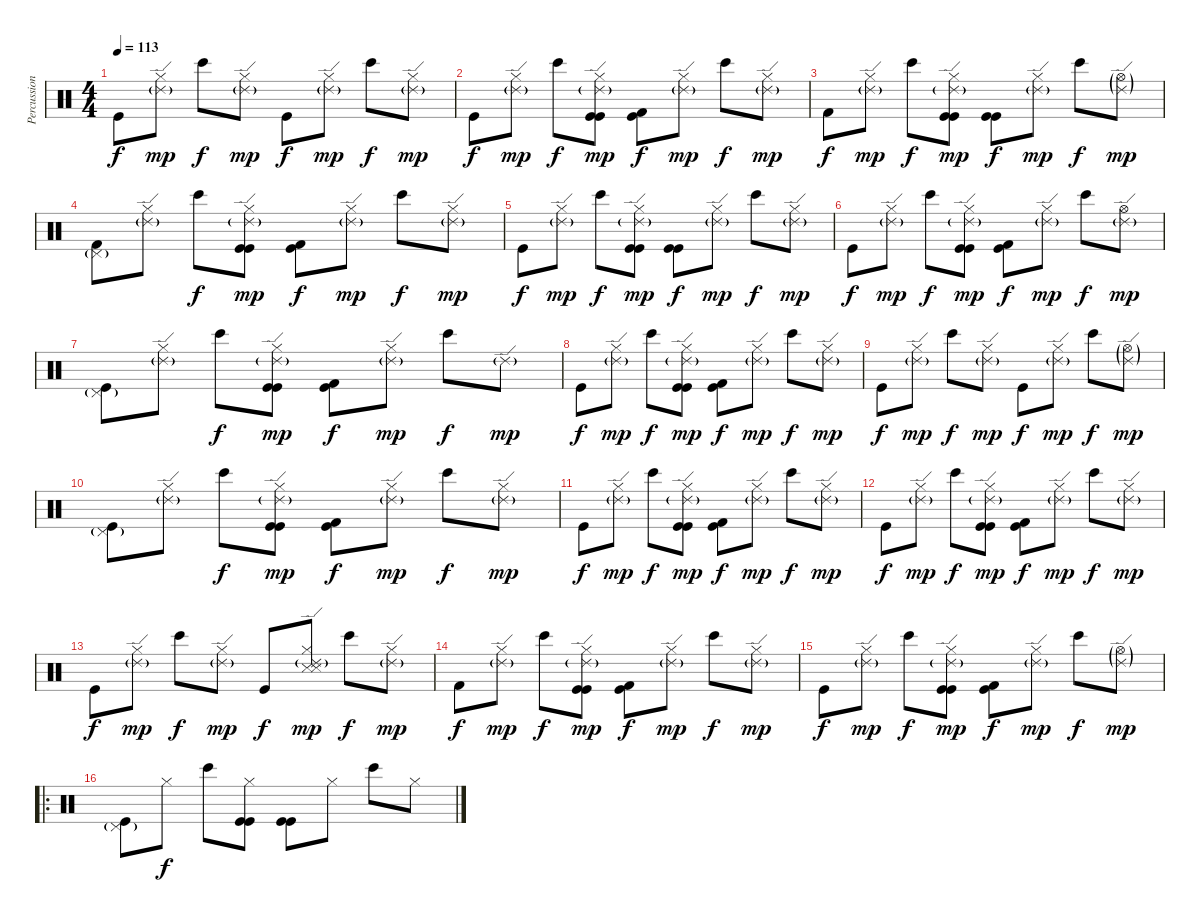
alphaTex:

\track ("Percussion" "Percussion") {instrument percussion}
\staff {score}
\articulation defaults
\ts (4 4)
\tempo 113
\clef neutral
\ks c "Kick (hit)".8{dy f}
("Ride (edge) 2"{g} "Hi-Hat (closed)").8{dy mp} "Bongo High (hit)".8{dy f} ("Ride (edge) 2"{g} "Hi-Hat (closed)").8{dy mp} "Kick (hit)".8{dy f} ("Ride (edge) 2"{g} "Hi-Hat (closed)").8{dy mp} "Bongo High (hit)".8{dy f} ("Ride (edge) 2"{g} "Hi-Hat (closed)").8{dy mp} |
"Kick (hit)".8{dy f} ("Ride (edge) 2"{g} "Hi-Hat (closed)").8{dy mp} "Bongo High (hit)".8{dy f} ("Ride (edge) 2"{g} "Hi-Hat (closed)" "Kick (hit)" "Kick (hit)").8{dy mp} ("Kick (hit)" "Kick (hit) 2").8{dy f} ("Ride (edge) 2"{g} "Hi-Hat (closed)").8{dy mp} "Bongo High (hit)".8{dy f} ("Ride (edge) 2"{g} "Hi-Hat (closed)").8{dy mp} |
"Kick (hit) 2".8{dy f} ("Ride (edge) 2"{g} "Hi-Hat (closed)").8{dy mp} "Bongo High (hit)".8{dy f} ("Ride (edge) 2"{g} "Hi-Hat (closed)" "Kick (hit)" "Kick (hit)").8{dy mp} ("Kick (hit)" "Kick (hit)").8{dy f} ("Ride (edge) 2"{g} "Hi-Hat (closed)").8{dy mp} "Bongo High (hit)".8{dy f} ("Ride (edge) 2"{g} "Hi-Hat (open)"{g}).8{dy mp} |
("Pedal Hi-Hat (hit)"{g} "Kick (hit) 2").8 ("Ride (edge) 2"{g} "Hi-Hat (closed)").8 "Bongo High (hit)".8{dy f} ("Ride (edge) 2"{g} "Hi-Hat (closed)" "Kick (hit)" "Kick (hit)").8{dy mp} ("Kick (hit) 2" "Kick (hit)").8{dy f} ("Ride (edge) 2"{g} "Hi-Hat (closed)").8{dy mp} "Bongo High (hit)".8{dy f} ("Ride (edge) 2"{g} "Hi-Hat (closed)").8{dy mp} |
"Kick (hit)".8{dy f} ("Ride (edge) 2"{g} "Hi-Hat (closed)").8{dy mp} "Bongo High (hit)".8{dy f} ("Ride (edge) 2"{g} "Hi-Hat (closed)" "Kick (hit)" "Kick (hit)").8{dy mp} ("Kick (hit)" "Kick (hit)").8{dy f} ("Ride (edge) 2"{g} "Hi-Hat (closed)").8{dy mp} "Bongo High (hit)".8{dy f} ("Ride (edge) 2"{g} "Hi-Hat (closed)").8{dy mp} |
"Kick (hit)".8{dy f} ("Ride (edge) 2"{g} "Hi-Hat (closed)").8{dy mp} "Bongo High (hit)".8{dy f} ("Ride (edge) 2"{g} "Hi-Hat (closed)" "Kick (hit)" "Kick (hit)").8{dy mp} ("Kick (hit)" "Kick (hit) 2").8{dy f} ("Ride (edge) 2"{g} "Hi-Hat (closed)").8{dy mp} "Bongo High (hit)".8{dy f} ("Ride (edge) 2"{g} "Hi-Hat (open)").8{dy mp} |
("Pedal Hi-Hat (hit)"{g} "Kick (hit)").8 ("Ride (edge) 2"{g} "Hi-Hat (closed)").8 "Bongo High (hit)".8{dy f} ("Ride (edge) 2"{g} "Hi-Hat (closed)" "Kick (hit)" "Kick (hit)").8{dy mp} ("Kick (hit)" "Kick (hit) 2").8{dy f} ("Ride (edge) 2"{g} "Hi-Hat (closed)").8{dy mp} "Bongo High (hit)".8{dy f} "Ride (edge) 2"{g}.8{dy mp} |
"Kick (hit)".8{dy f} ("Ride (edge) 2"{g} "Hi-Hat (closed)").8{dy mp} "Bongo High (hit)".8{dy f} ("Ride (edge) 2"{g} "Hi-Hat (closed)" "Kick (hit)" "Kick (hit)").8{dy mp} ("Kick (hit)" "Kick (hit) 2").8{dy f} ("Ride (edge) 2"{g} "Hi-Hat (closed)").8{dy mp} "Bongo High (hit)".8{dy f} ("Ride (edge) 2"{g} "Hi-Hat (closed)").8{dy mp} |
"Kick (hit)".8{dy f} ("Ride (edge) 2"{g} "Hi-Hat (closed)").8{dy mp} "Bongo High (hit)".8{dy f} ("Ride (edge) 2"{g} "Hi-Hat (closed)").8{dy mp} "Kick (hit)".8{dy f} ("Ride (edge) 2"{g} "Hi-Hat (closed)").8{dy mp} "Bongo High (hit)".8{dy f} ("Ride (edge) 2"{g} "Hi-Hat (open)"{g}).8{dy mp} |
("Pedal Hi-Hat (hit)"{g} "Kick (hit)").8 ("Ride (edge) 2"{g} "Hi-Hat (closed)").8 "Bongo High (hit)".8{dy f} ("Ride (edge) 2"{g} "Hi-Hat (closed)" "Kick (hit)" "Kick (hit)").8{dy mp} ("Kick (hit)" "Kick (hit) 2").8{dy f} ("Ride (edge) 2"{g} "Hi-Hat (closed)").8{dy mp} "Bongo High (hit)".8{dy f} ("Ride (edge) 2"{g} "Hi-Hat (closed)").8{dy mp} |
"Kick (hit)".8{dy f} ("Ride (edge) 2"{g} "Hi-Hat (closed)").8{dy mp} "Bongo High (hit)".8{dy f} ("Ride (edge) 2"{g} "Hi-Hat (closed)" "Kick (hit)" "Kick (hit)").8{dy mp} ("Kick (hit)" "Kick (hit) 2").8{dy f} ("Ride (edge) 2"{g} "Hi-Hat (closed)").8{dy mp} "Bongo High (hit)".8{dy f} ("Ride (edge) 2"{g} "Hi-Hat (closed)").8{dy mp} |
"Kick (hit)".8{dy f} ("Ride (edge) 2"{g} "Hi-Hat (closed)").8{dy mp} "Bongo High (hit)".8{dy f} ("Ride (edge) 2"{g} "Hi-Hat (closed)" "Kick (hit)" "Kick (hit)").8{dy mp} ("Kick (hit)" "Kick (hit) 2").8{dy f} ("Ride (edge) 2"{g} "Hi-Hat (closed)").8{dy mp} "Bongo High (hit)".8{dy f} ("Ride (edge) 2"{g} "Hi-Hat (closed)").8{dy mp} |
"Kick (hit)".8{dy f} ("Ride (edge) 2"{g} "Hi-Hat (closed)").8{dy mp} "Bongo High (hit)".8{dy f} ("Ride (edge) 2"{g} "Hi-Hat (closed)").8{dy mp} "Kick (hit)".8{dy f} ("Ride (edge) 2"{g} "Hi-Hat (closed)" "Snare (side stick) 3" "Snare (side stick) 3").8{dy mp} "Bongo High (hit)".8{dy f} ("Ride (edge) 2"{g} "Hi-Hat (closed)").8{dy mp} |
"Kick (hit) 2".8{dy f} ("Ride (edge) 2"{g} "Hi-Hat (closed)").8{dy mp} "Bongo High (hit)".8{dy f} ("Ride (edge) 2"{g} "Hi-Hat (closed)" "Kick (hit)" "Kick (hit)").8{dy mp} ("Kick (hit) 2" "Kick (hit)").8{dy f} ("Ride (edge) 2"{g} "Hi-Hat (closed)").8{dy mp} "Bongo High (hit)".8{dy f} ("Ride (edge) 2"{g} "Hi-Hat (closed)").8{dy mp} |
"Kick (hit)".8{dy f} ("Ride (edge) 2"{g} "Hi-Hat (closed)").8{dy mp} "Bongo High (hit)".8{dy f} ("Ride (edge) 2"{g} "Hi-Hat (closed)" "Kick (hit)" "Kick (hit)").8{dy mp} ("Kick (hit)" "Kick (hit) 2").8{dy f} ("Ride (edge) 2"{g} "Hi-Hat (closed)").8{dy mp} "Bongo High (hit)".8{dy f} ("Ride (edge) 2"{g} "Hi-Hat (open)"{g}).8{dy mp} |
\ro
("Pedal Hi-Hat (hit)"{g} "Kick (hit)").8 "Hi-Hat (closed)".8{dy f} "Bongo High (hit)".8 ("Hi-Hat (closed)" "Kick (hit)" "Kick (hit)").8 ("Kick (hit)" "Kick (hit)").8 "Hi-Hat (closed)".8 "Bongo High (hit)".8 "Hi-Hat (closed)".8
